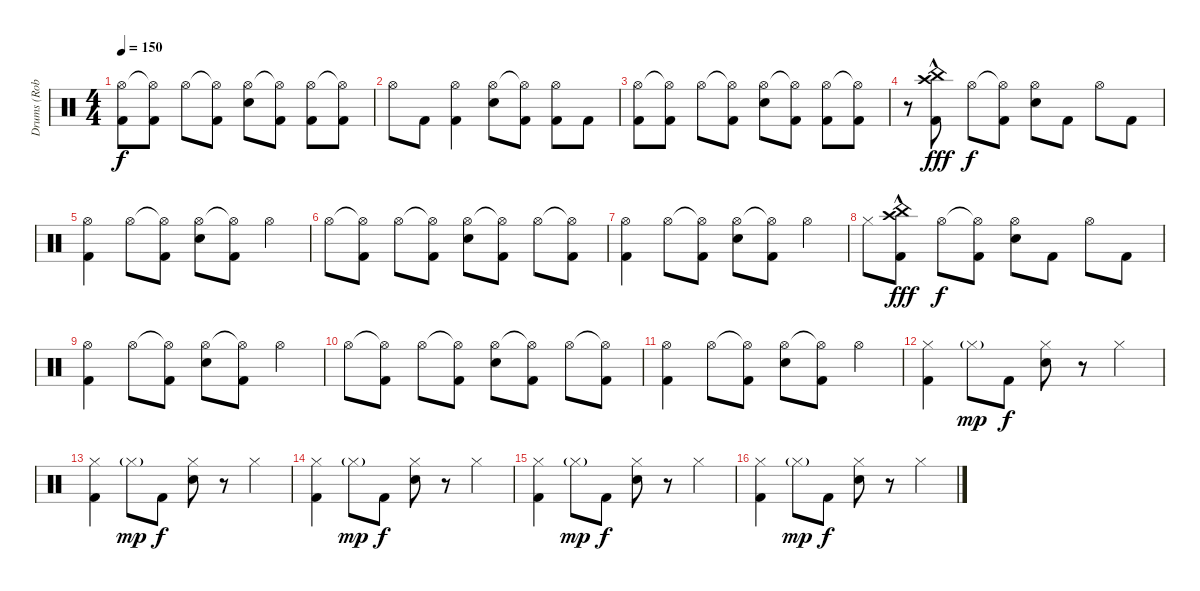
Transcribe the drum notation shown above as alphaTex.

\track ("Drums (Rob)" "Drums (Rob") {instrument percussion}
\staff {score}
\articulation defaults
\ts (4 4)
\tempo 150
\clef neutral
\ks c
("Hi-Hat (open)" "Kick (hit) 2").8{dy f} ("Hi-Hat (open)"{t} "Kick (hit) 2").8 "Hi-Hat (open)".8 ("Hi-Hat (open)"{t} "Kick (hit) 2").8 ("Hi-Hat (open)" "Snare (hit) 2").8 ("Hi-Hat (open)"{t} "Kick (hit) 2").8 ("Hi-Hat (open)" "Kick (hit) 2").8 ("Hi-Hat (open)"{t} "Kick (hit) 2").8 |
"Hi-Hat (open)".8 "Kick (hit) 2".8 ("Hi-Hat (open)" "Kick (hit) 2").4 ("Hi-Hat (open)" "Snare (hit) 2").8 ("Hi-Hat (open)"{t} "Kick (hit) 2").8 ("Hi-Hat (open)" "Kick (hit) 2").8 "Kick (hit) 2".8 |
("Hi-Hat (open)" "Kick (hit) 2").8 ("Hi-Hat (open)"{t} "Kick (hit) 2").8 "Hi-Hat (open)".8 ("Hi-Hat (open)"{t} "Kick (hit) 2").8 ("Hi-Hat (open)" "Snare (hit) 2").8 ("Hi-Hat (open)"{t} "Kick (hit) 2").8 ("Hi-Hat (open)" "Kick (hit) 2").8 ("Hi-Hat (open)"{t} "Kick (hit) 2").8 |
r.8 ("Crash high (hit)"{hac} "China (hit)"{hac} "Kick (hit) 2").8{dy fff} "Hi-Hat (open)".8{dy f} ("Hi-Hat (open)"{t} "Kick (hit) 2").8 ("Hi-Hat (open)" "Snare (hit) 2").8 "Kick (hit) 2".8 "Hi-Hat (open)".8 "Kick (hit) 2".8 |
("Hi-Hat (open)" "Kick (hit) 2").4 "Hi-Hat (open)".8 ("Hi-Hat (open)"{t} "Kick (hit) 2").8 ("Hi-Hat (open)" "Snare (hit) 2").8 ("Hi-Hat (open)"{t} "Kick (hit) 2").8 "Hi-Hat (open)".4 |
"Hi-Hat (open)".8 ("Hi-Hat (open)"{t} "Kick (hit) 2").8 "Hi-Hat (open)".8 ("Hi-Hat (open)"{t} "Kick (hit) 2").8 ("Hi-Hat (open)" "Snare (hit) 2").8 ("Hi-Hat (open)"{t} "Kick (hit) 2").8 "Hi-Hat (open)".8 ("Hi-Hat (open)"{t} "Kick (hit) 2").8 |
("Hi-Hat (open)" "Kick (hit) 2").4 "Hi-Hat (open)".8 ("Hi-Hat (open)"{t} "Kick (hit) 2").8 ("Hi-Hat (open)" "Snare (hit) 2").8 ("Hi-Hat (open)"{t} "Kick (hit) 2").8 "Hi-Hat (open)".4 |
"Hi-Hat (closed)".8 ("Crash high (hit)"{hac} "China (hit)"{hac} "Kick (hit) 2").8{dy fff} "Hi-Hat (open)".8{dy f} ("Hi-Hat (open)"{t} "Kick (hit) 2").8 ("Hi-Hat (open)" "Snare (hit) 2").8 "Kick (hit) 2".8 "Hi-Hat (open)".8 "Kick (hit) 2".8 |
("Hi-Hat (open)" "Kick (hit) 2").4 "Hi-Hat (open)".8 ("Hi-Hat (open)"{t} "Kick (hit) 2").8 ("Hi-Hat (open)" "Snare (hit) 2").8 ("Hi-Hat (open)"{t} "Kick (hit) 2").8 "Hi-Hat (open)".4 |
"Hi-Hat (open)".8 ("Hi-Hat (open)"{t} "Kick (hit) 2").8 "Hi-Hat (open)".8 ("Hi-Hat (open)"{t} "Kick (hit) 2").8 ("Hi-Hat (open)" "Snare (hit) 2").8 ("Hi-Hat (open)"{t} "Kick (hit) 2").8 "Hi-Hat (open)".8 ("Hi-Hat (open)"{t} "Kick (hit) 2").8 |
("Hi-Hat (open)" "Kick (hit) 2").4 "Hi-Hat (open)".8 ("Hi-Hat (open)"{t} "Kick (hit) 2").8 ("Hi-Hat (open)" "Snare (hit) 2").8 ("Hi-Hat (open)"{t} "Kick (hit) 2").8 "Hi-Hat (open)".4 |
("Hi-Hat (closed)" "Kick (hit) 2").4 "Hi-Hat (closed)"{g}.8{dy mp} "Kick (hit) 2".8{dy f} ("Hi-Hat (closed)" "Electric Snare (hit)").8 r.8 "Hi-Hat (closed)".4 |
("Hi-Hat (closed)" "Kick (hit) 2").4 "Hi-Hat (closed)"{g}.8{dy mp} "Kick (hit) 2".8{dy f} ("Hi-Hat (closed)" "Electric Snare (hit)").8 r.8 "Hi-Hat (closed)".4 |
("Hi-Hat (closed)" "Kick (hit) 2").4 "Hi-Hat (closed)"{g}.8{dy mp} "Kick (hit) 2".8{dy f} ("Hi-Hat (closed)" "Electric Snare (hit)").8 r.8 "Hi-Hat (closed)".4 |
("Hi-Hat (closed)" "Kick (hit) 2").4 "Hi-Hat (closed)"{g}.8{dy mp} "Kick (hit) 2".8{dy f} ("Hi-Hat (closed)" "Electric Snare (hit)").8 r.8 "Hi-Hat (closed)".4 |
("Hi-Hat (closed)" "Kick (hit) 2").4 "Hi-Hat (closed)"{g}.8{dy mp} "Kick (hit) 2".8{dy f} ("Hi-Hat (closed)" "Electric Snare (hit)").8 r.8 "Hi-Hat (closed)".4
